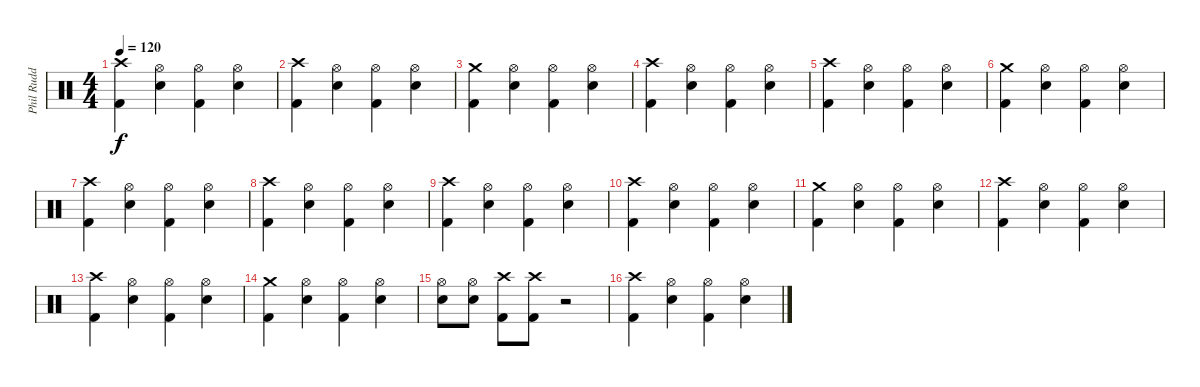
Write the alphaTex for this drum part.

\track ("Phil Rudd (Drum)" "Phil Rudd ") {instrument percussion}
\staff {score}
\articulation defaults
\ts (4 4)
\tempo 120
\clef neutral
\ks c
("Crash high (hit)" "Kick (hit) 2").4{dy f} ("Hi-Hat (open)" "Snare (hit) 2").4 ("Hi-Hat (open)" "Kick (hit) 2").4 ("Hi-Hat (open)" "Snare (hit) 2").4 |
("Crash high (hit)" "Kick (hit) 2").4 ("Hi-Hat (open)" "Snare (hit) 2").4 ("Hi-Hat (open)" "Kick (hit) 2").4 ("Hi-Hat (open)" "Snare (hit) 2").4 |
("Crash medium (hit)" "Kick (hit) 2").4 ("Hi-Hat (open)" "Snare (hit) 2").4 ("Hi-Hat (open)" "Kick (hit) 2").4 ("Hi-Hat (open)" "Snare (hit) 2").4 |
("Crash high (hit)" "Kick (hit) 2").4 ("Hi-Hat (open)" "Snare (hit) 2").4 ("Hi-Hat (open)" "Kick (hit) 2").4 ("Hi-Hat (open)" "Snare (hit) 2").4 |
("Crash high (hit)" "Kick (hit) 2").4 ("Hi-Hat (open)" "Snare (hit) 2").4 ("Hi-Hat (open)" "Kick (hit) 2").4 ("Hi-Hat (open)" "Snare (hit) 2").4 |
("Crash medium (hit)" "Kick (hit) 2").4 ("Hi-Hat (open)" "Snare (hit) 2").4 ("Hi-Hat (open)" "Kick (hit) 2").4 ("Hi-Hat (open)" "Snare (hit) 2").4 |
("Crash high (hit)" "Kick (hit) 2").4 ("Hi-Hat (open)" "Snare (hit) 2").4 ("Hi-Hat (open)" "Kick (hit) 2").4 ("Hi-Hat (open)" "Snare (hit) 2").4 |
("Crash high (hit)" "Kick (hit) 2").4 ("Hi-Hat (open)" "Snare (hit) 2").4 ("Hi-Hat (open)" "Kick (hit) 2").4 ("Hi-Hat (open)" "Snare (hit) 2").4 |
("Crash high (hit)" "Kick (hit) 2").4 ("Hi-Hat (open)" "Snare (hit) 2").4 ("Hi-Hat (open)" "Kick (hit) 2").4 ("Hi-Hat (open)" "Snare (hit) 2").4 |
("Crash high (hit)" "Kick (hit) 2").4 ("Hi-Hat (open)" "Snare (hit) 2").4 ("Hi-Hat (open)" "Kick (hit) 2").4 ("Hi-Hat (open)" "Snare (hit) 2").4 |
("Crash medium (hit)" "Kick (hit) 2").4 ("Hi-Hat (open)" "Snare (hit) 2").4 ("Hi-Hat (open)" "Kick (hit) 2").4 ("Hi-Hat (open)" "Snare (hit) 2").4 |
("Crash high (hit)" "Kick (hit) 2").4 ("Hi-Hat (open)" "Snare (hit) 2").4 ("Hi-Hat (open)" "Kick (hit) 2").4 ("Hi-Hat (open)" "Snare (hit) 2").4 |
("Crash high (hit)" "Kick (hit) 2").4 ("Hi-Hat (open)" "Snare (hit) 2").4 ("Hi-Hat (open)" "Kick (hit) 2").4 ("Hi-Hat (open)" "Snare (hit) 2").4 |
("Crash medium (hit)" "Kick (hit) 2").4 ("Hi-Hat (open)" "Snare (hit) 2").4 ("Hi-Hat (open)" "Kick (hit) 2").4 ("Hi-Hat (open)" "Snare (hit) 2").4 |
("Hi-Hat (open)" "Snare (hit) 2").8 ("Hi-Hat (open)" "Snare (hit) 2").8 ("Crash high (hit)" "Kick (hit) 2").8 ("Crash high (hit)" "Kick (hit) 2").8 r.2 |
("Crash high (hit)" "Kick (hit) 2").4 ("Hi-Hat (open)" "Snare (hit) 2").4 ("Hi-Hat (open)" "Kick (hit) 2").4 ("Hi-Hat (open)" "Snare (hit) 2").4
